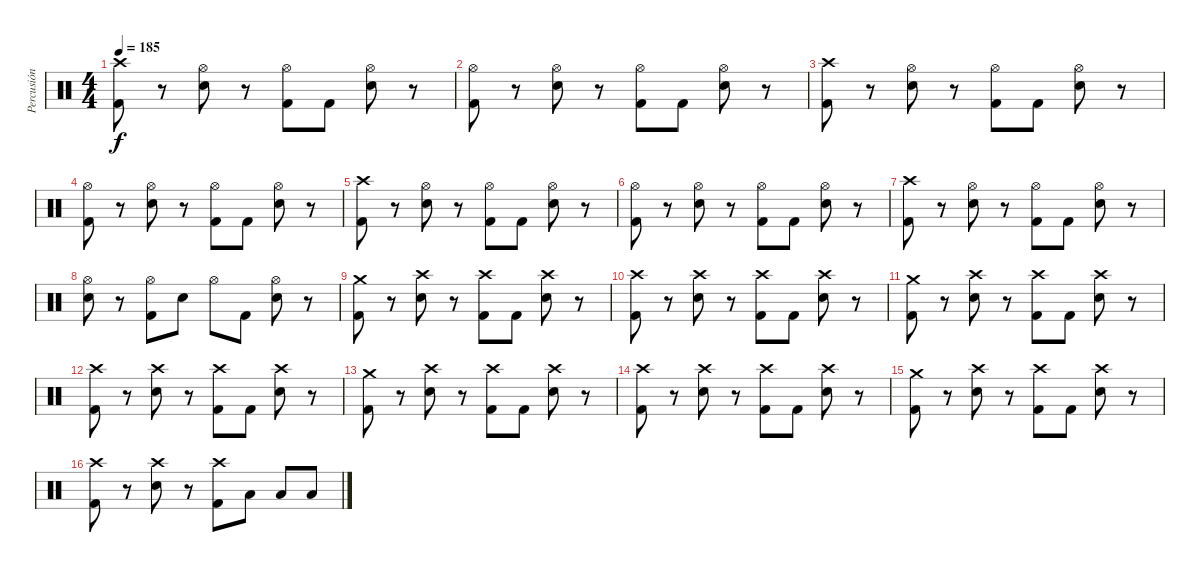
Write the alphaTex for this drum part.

\track ("Percusión" "Percusión") {instrument percussion}
\staff {score}
\articulation defaults
\ts (4 4)
\tempo 185
\clef neutral
\ks c
("Crash high (hit)" "Kick (hit) 2").8{dy f} r.8 ("Hi-Hat (open)" "Electric Snare (hit)").8 r.8 ("Hi-Hat (open)" "Kick (hit) 2").8 "Kick (hit) 2".8 ("Hi-Hat (open)" "Electric Snare (hit)").8 r.8 |
("Hi-Hat (open)" "Kick (hit) 2").8 r.8 ("Hi-Hat (open)" "Electric Snare (hit)").8 r.8 ("Hi-Hat (open)" "Kick (hit) 2").8 "Kick (hit) 2".8 ("Hi-Hat (open)" "Electric Snare (hit)").8 r.8 |
("Crash high (hit)" "Kick (hit) 2").8 r.8 ("Hi-Hat (open)" "Electric Snare (hit)").8 r.8 ("Hi-Hat (open)" "Kick (hit) 2").8 "Kick (hit) 2".8 ("Hi-Hat (open)" "Electric Snare (hit)").8 r.8 |
("Hi-Hat (open)" "Kick (hit) 2").8 r.8 ("Hi-Hat (open)" "Electric Snare (hit)").8 r.8 ("Hi-Hat (open)" "Kick (hit) 2").8 "Kick (hit) 2".8 ("Hi-Hat (open)" "Electric Snare (hit)").8 r.8 |
("Crash high (hit)" "Kick (hit) 2").8 r.8 ("Hi-Hat (open)" "Electric Snare (hit)").8 r.8 ("Hi-Hat (open)" "Kick (hit) 2").8 "Kick (hit) 2".8 ("Hi-Hat (open)" "Electric Snare (hit)").8 r.8 |
("Hi-Hat (open)" "Kick (hit) 2").8 r.8 ("Hi-Hat (open)" "Electric Snare (hit)").8 r.8 ("Hi-Hat (open)" "Kick (hit) 2").8 "Kick (hit) 2".8 ("Hi-Hat (open)" "Electric Snare (hit)").8 r.8 |
("Crash high (hit)" "Kick (hit) 2").8 r.8 ("Hi-Hat (open)" "Electric Snare (hit)").8 r.8 ("Hi-Hat (open)" "Kick (hit) 2").8 "Kick (hit) 2".8 ("Hi-Hat (open)" "Electric Snare (hit)").8 r.8 |
("Hi-Hat (open)" "Electric Snare (hit)").8 r.8 ("Hi-Hat (open)" "Kick (hit) 2").8 "Electric Snare (hit)".8 "Hi-Hat (open)".8 "Kick (hit) 2".8 ("Hi-Hat (open)" "Electric Snare (hit)").8 r.8 |
("Crash medium (hit)" "Kick (hit) 2").8 r.8 ("Crash high (hit)" "Electric Snare (hit)").8 r.8 ("Crash high (hit)" "Kick (hit) 2").8 "Kick (hit) 2".8 ("Crash high (hit)" "Electric Snare (hit)").8 r.8 |
("Crash high (hit)" "Kick (hit) 2").8 r.8 ("Crash high (hit)" "Electric Snare (hit)").8 r.8 ("Crash high (hit)" "Kick (hit) 2").8 "Kick (hit) 2".8 ("Crash high (hit)" "Electric Snare (hit)").8 r.8 |
("Crash medium (hit)" "Kick (hit) 2").8 r.8 ("Crash high (hit)" "Electric Snare (hit)").8 r.8 ("Crash high (hit)" "Kick (hit) 2").8 "Kick (hit) 2".8 ("Crash high (hit)" "Electric Snare (hit)").8 r.8 |
("Crash high (hit)" "Kick (hit) 2").8 r.8 ("Crash high (hit)" "Electric Snare (hit)").8 r.8 ("Crash high (hit)" "Kick (hit) 2").8 "Kick (hit) 2".8 ("Crash high (hit)" "Electric Snare (hit)").8 r.8 |
("Crash medium (hit)" "Kick (hit) 2").8 r.8 ("Crash high (hit)" "Electric Snare (hit)").8 r.8 ("Crash high (hit)" "Kick (hit) 2").8 "Kick (hit) 2".8 ("Crash high (hit)" "Electric Snare (hit)").8 r.8 |
("Crash high (hit)" "Kick (hit) 2").8 r.8 ("Crash high (hit)" "Electric Snare (hit)").8 r.8 ("Crash high (hit)" "Kick (hit) 2").8 "Kick (hit) 2".8 ("Crash high (hit)" "Electric Snare (hit)").8 r.8 |
("Crash medium (hit)" "Kick (hit) 2").8 r.8 ("Crash high (hit)" "Electric Snare (hit)").8 r.8 ("Crash high (hit)" "Kick (hit) 2").8 "Kick (hit) 2".8 ("Crash high (hit)" "Electric Snare (hit)").8 r.8 |
("Crash high (hit)" "Kick (hit) 2").8 r.8 ("Crash high (hit)" "Electric Snare (hit)").8 r.8 ("Crash high (hit)" "Kick (hit) 2").8 "Low Tom (hit)".8 "Low Tom (hit)".8 "Low Tom (hit)".8
